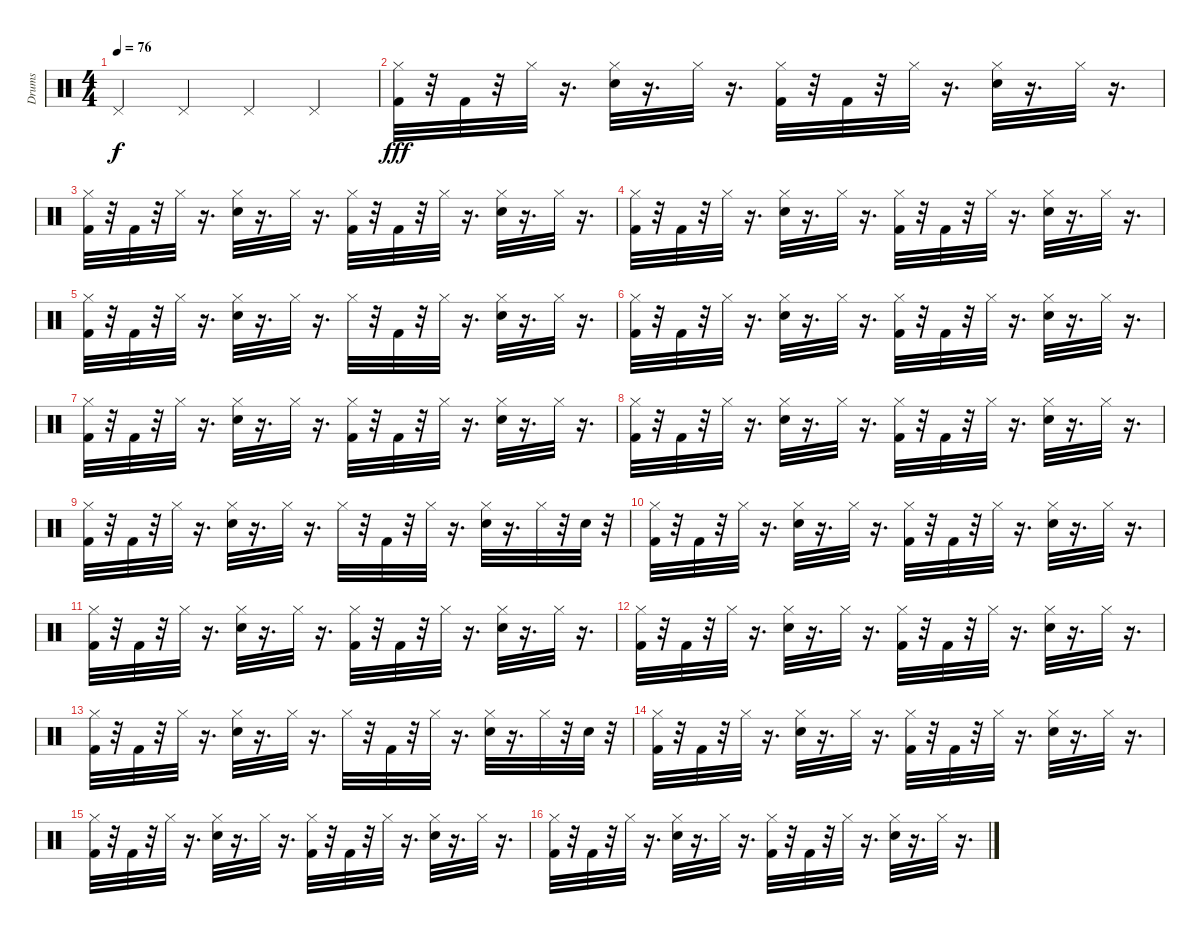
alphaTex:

\track ("Drums" "Drums") {instrument percussion}
\staff {score}
\articulation defaults
\ts (4 4)
\tempo 76
\clef neutral
\ks c "Pedal Hi-Hat (hit)".4{dy f} "Pedal Hi-Hat (hit)".4 "Pedal Hi-Hat (hit)".4 "Pedal Hi-Hat (hit)".4
|
("Hi-Hat (closed)" "Kick (hit) 2").32{dy fff} r.32 "Kick (hit) 2".32 r.32 "Hi-Hat (closed)".32 r.16{d} ("Hi-Hat (closed)" "Electric Snare (hit)").32 r.16{d} "Hi-Hat (closed)".32 r.16{d} ("Hi-Hat (closed)" "Kick (hit) 2").32 r.32 "Kick (hit) 2".32 r.32 "Hi-Hat (closed)".32 r.16{d} ("Hi-Hat (closed)" "Electric Snare (hit)").32 r.16{d} "Hi-Hat (closed)".32 r.16{d txt ""} |
("Kick (hit) 2" "Hi-Hat (closed)").32 r.32 "Kick (hit) 2".32 r.32 "Hi-Hat (closed)".32 r.16{d} ("Electric Snare (hit)" "Hi-Hat (closed)").32 r.16{d} "Hi-Hat (closed)".32 r.16{d} ("Kick (hit) 2" "Hi-Hat (closed)").32 r.32 "Kick (hit) 2".32 r.32 "Hi-Hat (closed)".32 r.16{d} ("Electric Snare (hit)" "Hi-Hat (closed)").32 r.16{d} "Hi-Hat (closed)".32 r.16{d} |
("Hi-Hat (closed)" "Kick (hit) 2").32 r.32 "Kick (hit) 2".32 r.32 "Hi-Hat (closed)".32 r.16{d} ("Hi-Hat (closed)" "Electric Snare (hit)").32 r.16{d} "Hi-Hat (closed)".32 r.16{d} ("Hi-Hat (closed)" "Kick (hit) 2").32 r.32 "Kick (hit) 2".32 r.32 "Hi-Hat (closed)".32 r.16{d} ("Hi-Hat (closed)" "Electric Snare (hit)").32 r.16{d} "Hi-Hat (closed)".32 r.16{d} |
("Kick (hit) 2" "Hi-Hat (closed)").32 r.32 "Kick (hit) 2".32 r.32 "Hi-Hat (closed)".32 r.16{d} ("Electric Snare (hit)" "Hi-Hat (closed)").32 r.16{d} "Hi-Hat (closed)".32 r.16{d} "Hi-Hat (closed)".32 r.32 "Kick (hit) 2".32 r.32 "Hi-Hat (closed)".32 r.16{d} ("Electric Snare (hit)" "Hi-Hat (closed)").32 r.16{d} "Hi-Hat (closed)".32 r.16{d} |
("Hi-Hat (closed)" "Kick (hit) 2").32 r.32 "Kick (hit) 2".32 r.32 "Hi-Hat (closed)".32 r.16{d} ("Hi-Hat (closed)" "Electric Snare (hit)").32 r.16{d} "Hi-Hat (closed)".32 r.16{d} ("Hi-Hat (closed)" "Kick (hit) 2").32 r.32 "Kick (hit) 2".32 r.32 "Hi-Hat (closed)".32 r.16{d} ("Hi-Hat (closed)" "Electric Snare (hit)").32 r.16{d} "Hi-Hat (closed)".32 r.16{d} |
("Kick (hit) 2" "Hi-Hat (closed)").32 r.32 "Kick (hit) 2".32 r.32 "Hi-Hat (closed)".32 r.16{d} ("Electric Snare (hit)" "Hi-Hat (closed)").32 r.16{d} "Hi-Hat (closed)".32 r.16{d} ("Kick (hit) 2" "Hi-Hat (closed)").32 r.32 "Kick (hit) 2".32 r.32 "Hi-Hat (closed)".32 r.16{d} ("Electric Snare (hit)" "Hi-Hat (closed)").32 r.16{d} "Hi-Hat (closed)".32 r.16{d} |
("Hi-Hat (closed)" "Kick (hit) 2").32 r.32 "Kick (hit) 2".32 r.32 "Hi-Hat (closed)".32 r.16{d} ("Hi-Hat (closed)" "Electric Snare (hit)").32 r.16{d} "Hi-Hat (closed)".32 r.16{d} ("Hi-Hat (closed)" "Kick (hit) 2").32 r.32 "Kick (hit) 2".32 r.32 "Hi-Hat (closed)".32 r.16{d} ("Hi-Hat (closed)" "Electric Snare (hit)").32 r.16{d} "Hi-Hat (closed)".32 r.16{d} |
("Kick (hit) 2" "Hi-Hat (closed)").32 r.32 "Kick (hit) 2".32 r.32 "Hi-Hat (closed)".32 r.16{d} ("Electric Snare (hit)" "Hi-Hat (closed)").32 r.16{d} "Hi-Hat (closed)".32 r.16{d} "Hi-Hat (closed)".32 r.32 "Kick (hit) 2".32 r.32 "Hi-Hat (closed)".32 r.16{d} ("Electric Snare (hit)" "Hi-Hat (closed)").32 r.16{d} "Hi-Hat (closed)".32 r.32 "Electric Snare (hit)".32 r.32 |
("Hi-Hat (closed)" "Kick (hit) 2").32 r.32 "Kick (hit) 2".32 r.32 "Hi-Hat (closed)".32 r.16{d} ("Hi-Hat (closed)" "Electric Snare (hit)").32 r.16{d} "Hi-Hat (closed)".32 r.16{d} ("Hi-Hat (closed)" "Kick (hit) 2").32 r.32 "Kick (hit) 2".32 r.32 "Hi-Hat (closed)".32 r.16{d} ("Hi-Hat (closed)" "Electric Snare (hit)").32 r.16{d} "Hi-Hat (closed)".32 r.16{d} |
("Kick (hit) 2" "Hi-Hat (closed)").32 r.32 "Kick (hit) 2".32 r.32 "Hi-Hat (closed)".32 r.16{d} ("Electric Snare (hit)" "Hi-Hat (closed)").32 r.16{d} "Hi-Hat (closed)".32 r.16{d} ("Kick (hit) 2" "Hi-Hat (closed)").32 r.32 "Kick (hit) 2".32 r.32 "Hi-Hat (closed)".32 r.16{d} ("Electric Snare (hit)" "Hi-Hat (closed)").32 r.16{d} "Hi-Hat (closed)".32 r.16{d} |
("Hi-Hat (closed)" "Kick (hit) 2").32 r.32 "Kick (hit) 2".32 r.32 "Hi-Hat (closed)".32 r.16{d} ("Hi-Hat (closed)" "Electric Snare (hit)").32 r.16{d} "Hi-Hat (closed)".32 r.16{d} ("Hi-Hat (closed)" "Kick (hit) 2").32 r.32 "Kick (hit) 2".32 r.32 "Hi-Hat (closed)".32 r.16{d} ("Hi-Hat (closed)" "Electric Snare (hit)").32 r.16{d} "Hi-Hat (closed)".32 r.16{d} |
("Kick (hit) 2" "Hi-Hat (closed)").32 r.32 "Kick (hit) 2".32 r.32 "Hi-Hat (closed)".32 r.16{d} ("Electric Snare (hit)" "Hi-Hat (closed)").32 r.16{d} "Hi-Hat (closed)".32 r.16{d} "Hi-Hat (closed)".32 r.32 "Kick (hit) 2".32 r.32 "Hi-Hat (closed)".32 r.16{d} ("Electric Snare (hit)" "Hi-Hat (closed)").32 r.16{d} "Hi-Hat (closed)".32 r.32 "Electric Snare (hit)".32 r.32 |
("Hi-Hat (closed)" "Kick (hit) 2").32 r.32 "Kick (hit) 2".32 r.32 "Hi-Hat (closed)".32 r.16{d} ("Hi-Hat (closed)" "Electric Snare (hit)").32 r.16{d} "Hi-Hat (closed)".32 r.16{d} ("Hi-Hat (closed)" "Kick (hit) 2").32 r.32 "Kick (hit) 2".32 r.32 "Hi-Hat (closed)".32 r.16{d} ("Hi-Hat (closed)" "Electric Snare (hit)").32 r.16{d} "Hi-Hat (closed)".32 r.16{d} |
("Kick (hit) 2" "Hi-Hat (closed)").32 r.32 "Kick (hit) 2".32 r.32 "Hi-Hat (closed)".32 r.16{d} ("Electric Snare (hit)" "Hi-Hat (closed)").32 r.16{d} "Hi-Hat (closed)".32 r.16{d} ("Kick (hit) 2" "Hi-Hat (closed)").32 r.32 "Kick (hit) 2".32 r.32 "Hi-Hat (closed)".32 r.16{d} ("Electric Snare (hit)" "Hi-Hat (closed)").32 r.16{d} "Hi-Hat (closed)".32 r.16{d} |
("Hi-Hat (closed)" "Kick (hit) 2").32 r.32 "Kick (hit) 2".32 r.32 "Hi-Hat (closed)".32 r.16{d} ("Hi-Hat (closed)" "Electric Snare (hit)").32 r.16{d} "Hi-Hat (closed)".32 r.16{d} ("Hi-Hat (closed)" "Kick (hit) 2").32 r.32 "Kick (hit) 2".32 r.32 "Hi-Hat (closed)".32 r.16{d} ("Hi-Hat (closed)" "Electric Snare (hit)").32 r.16{d} "Hi-Hat (closed)".32 r.16{d}
